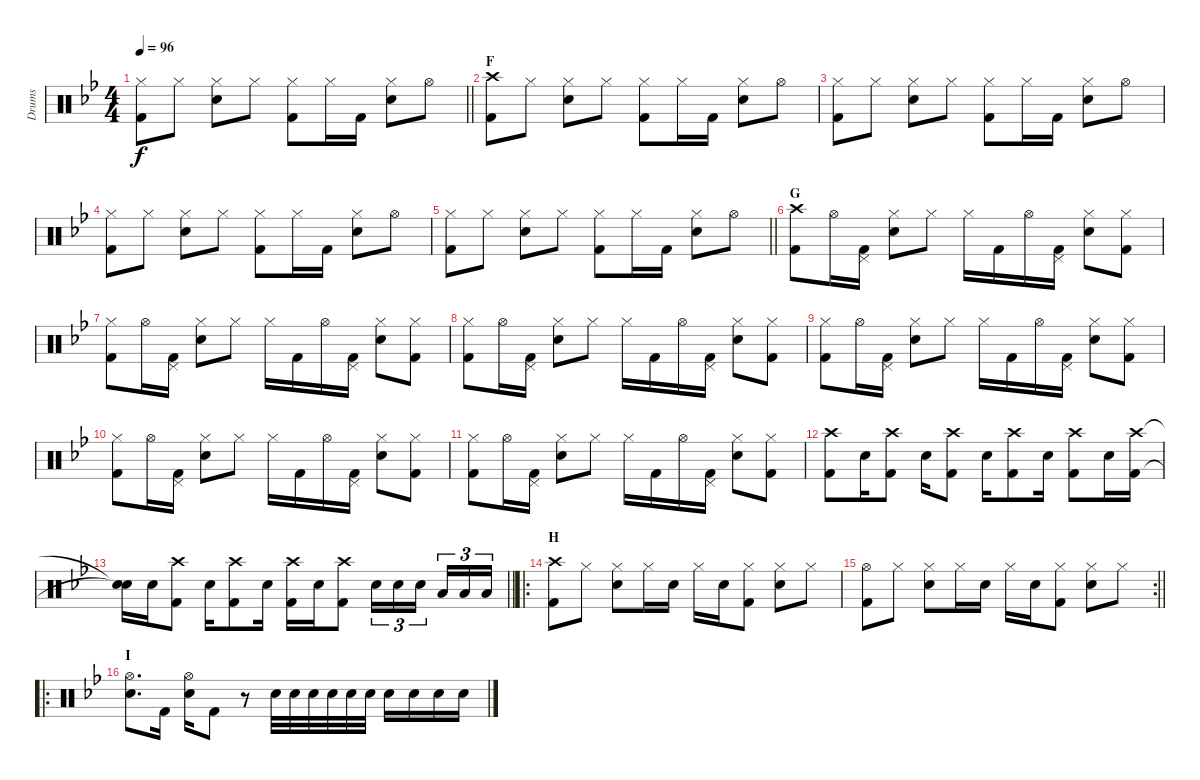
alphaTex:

\track ("Drums" "Drums") {instrument percussion}
\staff {score}
\articulation defaults
\ts (4 4)
\tempo 96
\clef neutral
\barLineRight lightlight
\ks gminor
("Hi-Hat (closed)" "Kick (hit) 2").8{dy f} "Hi-Hat (closed)".8 ("Hi-Hat (closed)" "Electric Snare (hit)").8 "Hi-Hat (closed)".8 ("Hi-Hat (closed)" "Kick (hit) 2").8 "Hi-Hat (closed)".16 "Kick (hit) 2".16 ("Hi-Hat (closed)" "Electric Snare (hit)").8 "Hi-Hat (open)".8 |
\section ("" "F")
("Crash high (hit)" "Kick (hit) 2").8 "Hi-Hat (closed)".8 ("Hi-Hat (closed)" "Electric Snare (hit)").8 "Hi-Hat (closed)".8 ("Hi-Hat (closed)" "Kick (hit) 2").8 "Hi-Hat (closed)".16 "Kick (hit) 2".16 ("Hi-Hat (closed)" "Electric Snare (hit)").8 "Hi-Hat (open)".8 |
("Hi-Hat (closed)" "Kick (hit) 2").8 "Hi-Hat (closed)".8 ("Hi-Hat (closed)" "Electric Snare (hit)").8 "Hi-Hat (closed)".8 ("Hi-Hat (closed)" "Kick (hit) 2").8 "Hi-Hat (closed)".16 "Kick (hit) 2".16 ("Hi-Hat (closed)" "Electric Snare (hit)").8 "Hi-Hat (open)".8 |
("Hi-Hat (closed)" "Kick (hit) 2").8 "Hi-Hat (closed)".8 ("Hi-Hat (closed)" "Electric Snare (hit)").8 "Hi-Hat (closed)".8 ("Hi-Hat (closed)" "Kick (hit) 2").8 "Hi-Hat (closed)".16 "Kick (hit) 2".16 ("Hi-Hat (closed)" "Electric Snare (hit)").8 "Hi-Hat (open)".8 |
\barLineRight lightlight
("Hi-Hat (closed)" "Kick (hit) 2").8 "Hi-Hat (closed)".8 ("Hi-Hat (closed)" "Electric Snare (hit)").8 "Hi-Hat (closed)".8 ("Hi-Hat (closed)" "Kick (hit) 2").8 "Hi-Hat (closed)".16 "Kick (hit) 2".16 ("Hi-Hat (closed)" "Electric Snare (hit)").8 "Hi-Hat (open)".8 |
\section ("" "G")
("Crash high (hit)" "Kick (hit) 2").8 "Hi-Hat (open)".16 ("Pedal Hi-Hat (hit)" "Kick (hit) 2").16 ("Hi-Hat (closed)" "Electric Snare (hit)").8 "Hi-Hat (closed)".8 "Hi-Hat (closed)".16 "Kick (hit) 2".16 "Hi-Hat (open)".16 ("Pedal Hi-Hat (hit)" "Kick (hit) 2").16 ("Hi-Hat (closed)" "Electric Snare (hit)").8 ("Hi-Hat (closed)" "Kick (hit) 2").8 |
("Hi-Hat (closed)" "Kick (hit) 2").8 "Hi-Hat (open)".16 ("Pedal Hi-Hat (hit)" "Kick (hit) 2").16 ("Hi-Hat (closed)" "Electric Snare (hit)").8 "Hi-Hat (closed)".8 "Hi-Hat (closed)".16 "Kick (hit) 2".16 "Hi-Hat (open)".16 ("Pedal Hi-Hat (hit)" "Kick (hit) 2").16 ("Hi-Hat (closed)" "Electric Snare (hit)").8 ("Hi-Hat (closed)" "Kick (hit) 2").8 |
("Hi-Hat (closed)" "Kick (hit) 2").8 "Hi-Hat (open)".16 ("Pedal Hi-Hat (hit)" "Kick (hit) 2").16 ("Hi-Hat (closed)" "Electric Snare (hit)").8 "Hi-Hat (closed)".8 "Hi-Hat (closed)".16 "Kick (hit) 2".16 "Hi-Hat (open)".16 ("Pedal Hi-Hat (hit)" "Kick (hit) 2").16 ("Hi-Hat (closed)" "Electric Snare (hit)").8 ("Hi-Hat (closed)" "Kick (hit) 2").8 |
("Hi-Hat (closed)" "Kick (hit) 2").8 "Hi-Hat (open)".16 ("Pedal Hi-Hat (hit)" "Kick (hit) 2").16 ("Hi-Hat (closed)" "Electric Snare (hit)").8 "Hi-Hat (closed)".8 "Hi-Hat (closed)".16 "Kick (hit) 2".16 "Hi-Hat (open)".16 ("Pedal Hi-Hat (hit)" "Kick (hit) 2").16 ("Hi-Hat (closed)" "Electric Snare (hit)").8 ("Hi-Hat (closed)" "Kick (hit) 2").8 |
("Hi-Hat (closed)" "Kick (hit) 2").8 "Hi-Hat (open)".16 ("Pedal Hi-Hat (hit)" "Kick (hit) 2").16 ("Hi-Hat (closed)" "Electric Snare (hit)").8 "Hi-Hat (closed)".8 "Hi-Hat (closed)".16 "Kick (hit) 2".16 "Hi-Hat (open)".16 ("Pedal Hi-Hat (hit)" "Kick (hit) 2").16 ("Hi-Hat (closed)" "Electric Snare (hit)").8 ("Hi-Hat (closed)" "Kick (hit) 2").8 |
("Hi-Hat (closed)" "Kick (hit) 2").8 "Hi-Hat (open)".16 ("Pedal Hi-Hat (hit)" "Kick (hit) 2").16 ("Hi-Hat (closed)" "Electric Snare (hit)").8 "Hi-Hat (closed)".8 "Hi-Hat (closed)".16 "Kick (hit) 2".16 "Hi-Hat (open)".16 ("Pedal Hi-Hat (hit)" "Kick (hit) 2").16 ("Hi-Hat (closed)" "Electric Snare (hit)").8 ("Hi-Hat (closed)" "Kick (hit) 2").8 |
("Crash high (hit)" "Kick (hit) 2").8 "Electric Snare (hit)".16 ("Crash high (hit)" "Kick (hit) 2").8 "Electric Snare (hit)".16 ("Crash high (hit)" "Kick (hit) 2").8 "Electric Snare (hit)".16 ("Crash high (hit)" "Kick (hit) 2").8 "Electric Snare (hit)".16 ("Crash high (hit)" "Kick (hit) 2").8 "Electric Snare (hit)".16 ("Crash high (hit)" "Kick (hit) 2").16 |
\barLineRight lightlight
("Snare (hit)"{t} "Snare (hit)"{t}).16 "Electric Snare (hit)".16 ("Crash high (hit)" "Kick (hit) 2").8 "Electric Snare (hit)".16 ("Crash high (hit)" "Kick (hit) 2").8 "Electric Snare (hit)".16 ("Crash high (hit)" "Kick (hit) 2").16 "Electric Snare (hit)".16 ("Crash high (hit)" "Kick (hit) 2").8 "Electric Snare (hit)".16{tu (3 2)} "Electric Snare (hit)".16{tu (3 2)} "Electric Snare (hit)".16{tu (3 2) beam splitsecondary} "Low Tom (hit)".16{tu (3 2)} "Low Tom (hit)".16{tu (3 2)} "Low Tom (hit)".16{tu (3 2)} |
\ro
\section ("" "H")
("Crash high (hit)" "Kick (hit) 2").8 "Hi-Hat (closed)".8 ("Hi-Hat (closed)" "Electric Snare (hit)").8 "Hi-Hat (closed)".16 "Electric Snare (hit)".16 "Hi-Hat (closed)".16 "Electric Snare (hit)".16 ("Hi-Hat (closed)" "Kick (hit) 2").8 ("Hi-Hat (closed)" "Electric Snare (hit)").8 "Hi-Hat (closed)".8 |
\rc 2
\barLineRight lightlight
("Hi-Hat (open)" "Kick (hit) 2").8 "Hi-Hat (closed)".8 ("Hi-Hat (closed)" "Electric Snare (hit)").8 "Hi-Hat (closed)".16 "Electric Snare (hit)".16 "Hi-Hat (closed)".16 "Electric Snare (hit)".16 ("Hi-Hat (closed)" "Kick (hit) 2").8 ("Hi-Hat (closed)" "Electric Snare (hit)").8 "Hi-Hat (closed)".8 |
\ro
\section ("" "I")
("Hi-Hat (open)" "Electric Snare (hit)").8{d} "Kick (hit) 2".16 ("Hi-Hat (open)" "Electric Snare (hit)").16 "Kick (hit) 2".8 r.8 "Electric Snare (hit)".32 "Electric Snare (hit)".32 "Electric Snare (hit)".32 "Electric Snare (hit)".32 "Electric Snare (hit)".32 "Electric Snare (hit)".32 "Electric Snare (hit)".16 "Electric Snare (hit)".16 "Electric Snare (hit)".16 "Electric Snare (hit)".16
